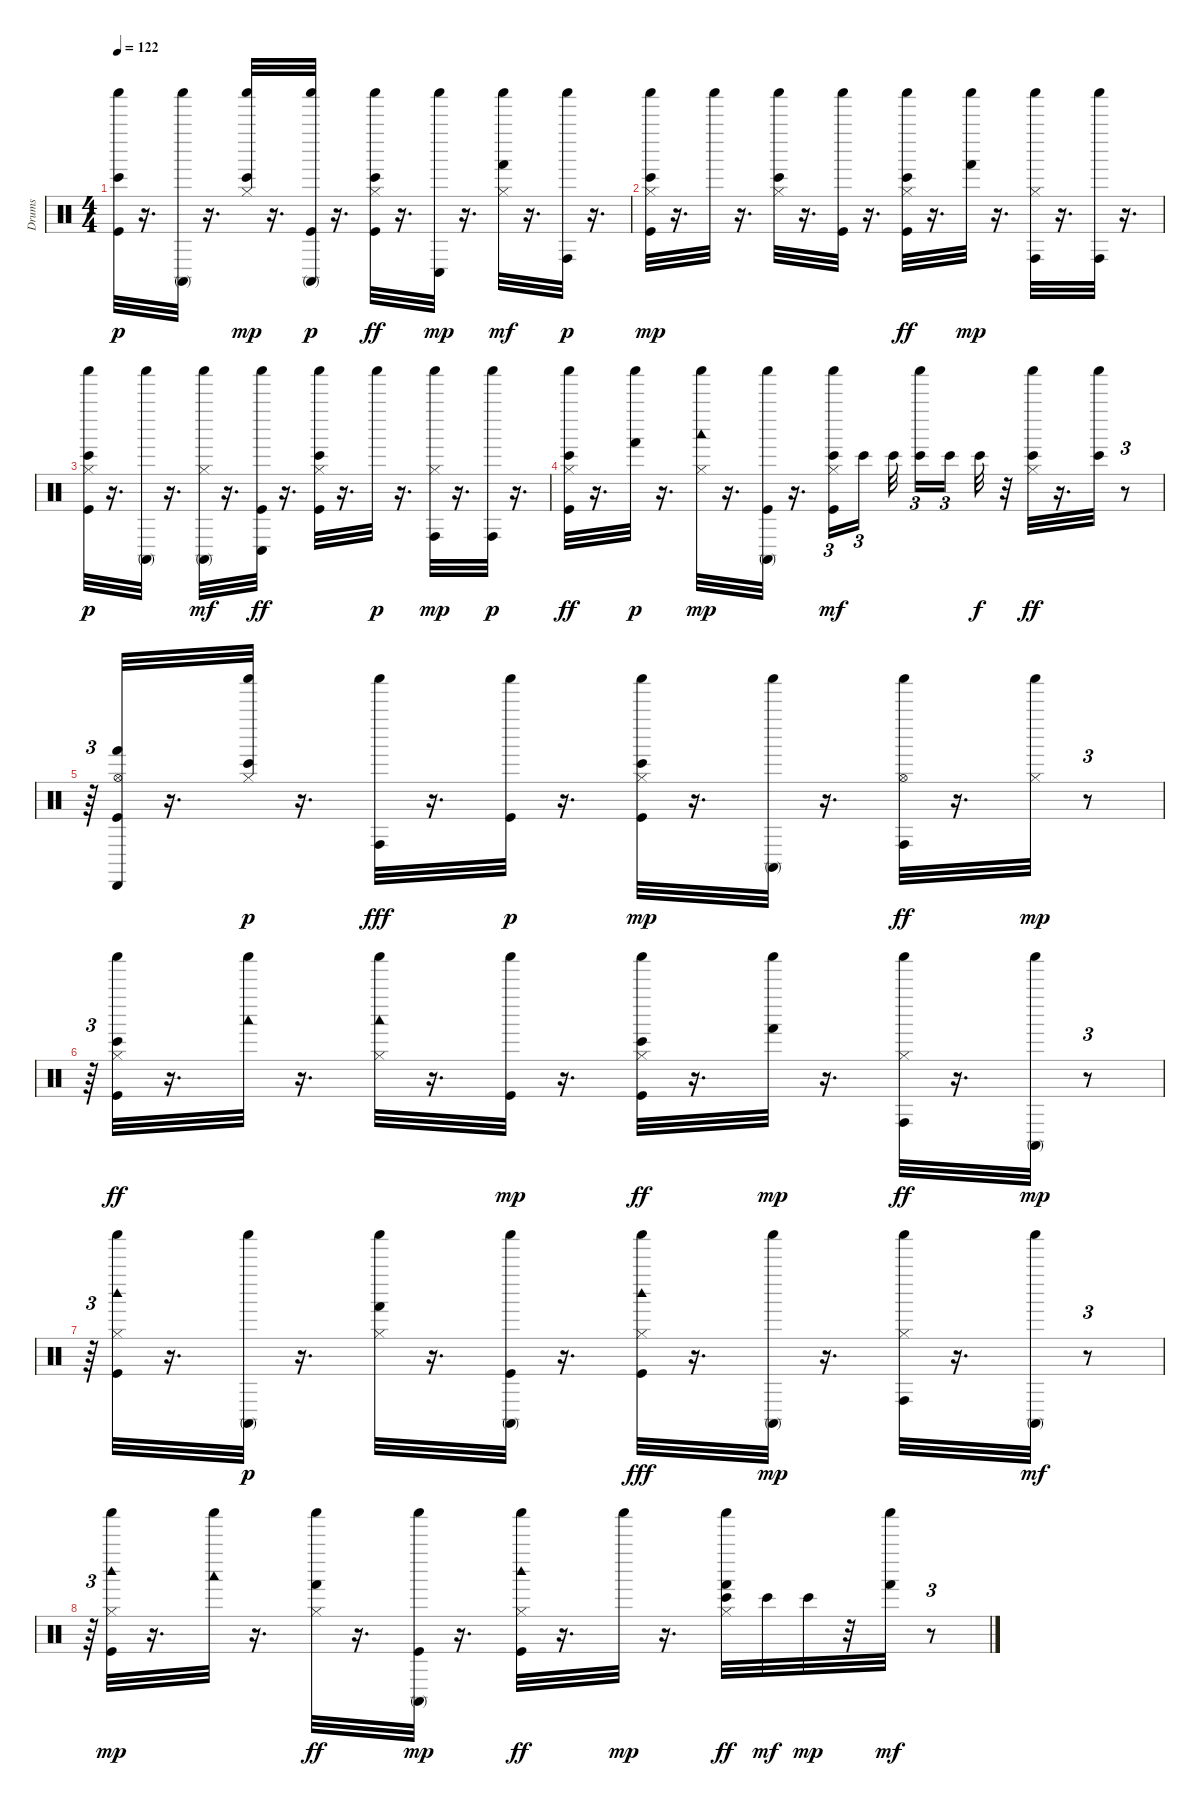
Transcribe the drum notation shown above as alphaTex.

\track ("Drums" "Drums") {instrument percussion}
\staff {score}
\articulation defaults
\ts (4 4)
\tempo 122
\clef neutral
\ks c
("Kick (hit)" "Bongo High (hit)" "Shaker (hit)").32{dy p} r.16{d} ("Conga high (mute)" "Shaker (hit)").32 r.16{d} ("Shaker (hit)" "Hi-Hat (closed)" "Bongo High (hit)").32{dy mp} r.16{d} ("Shaker (hit)" "Kick (hit)" "Conga high (mute)").32{dy p} r.16{d} ("Shaker (hit)" "Kick (hit)" "Hi-Hat (closed)" "Bongo High (hit)").32{dy ff} r.16{d} ("Shaker (hit)" "Conga low (hit)").32{dy mp} r.16{d} ("Shaker (hit)" "Hi-Hat (closed)" "Hand (hit)").32{dy mf} r.16{d} ("Shaker (hit)" "Conga high (hit)").32{dy p} r.16{d} |
("Shaker (hit)" "Kick (hit)" "Hi-Hat (closed)" "Bongo High (hit)").32{dy mp} r.16{d} "Shaker (hit)".32 r.16{d} ("Shaker (hit)" "Hi-Hat (closed)" "Bongo High (hit)").32 r.16{d} ("Shaker (hit)" "Kick (hit)").32 r.16{d} ("Shaker (hit)" "Kick (hit)" "Hi-Hat (closed)" "Bongo High (hit)").32{dy ff} r.16{d} ("Shaker (hit)" "Hand (hit)").32{dy mp} r.16{d} ("Shaker (hit)" "Hi-Hat (closed)" "Conga high (hit)").32 r.16{d} ("Shaker (hit)" "Conga high (hit)").32 r.16{d} |
("Kick (hit)" "Hi-Hat (closed)" "Bongo High (hit)" "Shaker (hit)").32{dy p} r.16{d} ("Conga high (mute)" "Shaker (hit)").32 r.16{d} ("Shaker (hit)" "Hi-Hat (closed)" "Conga high (mute)").32{dy mf} r.16{d} ("Shaker (hit)" "Kick (hit)" "Conga low (hit)").32{dy ff} r.16{d} ("Shaker (hit)" "Kick (hit)" "Hi-Hat (closed)" "Bongo High (hit)").32 r.16{d} "Shaker (hit)".32{dy p} r.16{d} ("Hi-Hat (closed)" "Shaker (hit)" "Conga high (hit)").32{dy mp} r.16{d} ("Shaker (hit)" "Conga high (hit)").32{dy p} r.16{d} |
("Shaker (hit)" "Kick (hit)" "Hi-Hat (closed)" "Bongo High (hit)").32{dy ff} r.16{d} ("Shaker (hit)" "Hand (hit)").32{dy p} r.16{d} ("Hi-Hat (closed)" "Woodblock low (hit)" "Shaker (hit)").32{dy mp} r.16{d} ("Shaker (hit)" "Kick (hit)" "Conga high (mute)").32 r.16{d} ("Shaker (hit)" "Kick (hit)" "Hi-Hat (closed)" "Bongo High (hit)").16{tu (3 2) dy mf} "Bongo High (hit)".16{tu (3 2) beam splitsecondary} "Bongo High (hit)".32{beam splitsecondary} ("Shaker (hit)" "Bongo High (hit)").16{tu (3 2)} "Bongo High (hit)".16{tu (3 2) beam splitsecondary} "Bongo High (hit)".32{dy f} r.32 ("Hi-Hat (closed)" "Shaker (hit)" "Bongo High (hit)").32{dy ff} r.16{d} ("Shaker (hit)" "Bongo High (hit)").32 r.8{tu (3 2)} |
r.64{tu (3 2)} ("Kick (hit)" "Hi-Hat (open)" "Hand (hit)" "Cabasa (hit)").32 r.16{d} ("Bongo High (hit)" "Hi-Hat (closed)" "Shaker (hit)").32{dy p} r.16{d} ("Shaker (hit)" "Conga high (hit)").32{dy fff} r.16{d} ("Shaker (hit)" "Kick (hit)").32{dy p} r.16{d} ("Shaker (hit)" "Kick (hit)" "Hi-Hat (closed)" "Bongo High (hit)").32{dy mp} r.16{d} ("Shaker (hit)" "Conga high (mute)").32 r.16{d} ("Shaker (hit)" "Hi-Hat (open)" "Conga high (hit)").32{dy ff} r.16{d} ("Shaker (hit)" "Hi-Hat (closed)").32{dy mp} r.8{tu (3 2)} |
r.64{tu (3 2)} ("Shaker (hit)" "Kick (hit)" "Hi-Hat (closed)" "Bongo High (hit)").32{dy ff} r.16{d} ("Shaker (hit)" "Woodblock low (hit)").32 r.16{d} ("Shaker (hit)" "Hi-Hat (closed)" "Woodblock low (hit)").32 r.16{d} ("Shaker (hit)" "Kick (hit)").32{dy mp} r.16{d} ("Hi-Hat (closed)" "Shaker (hit)" "Kick (hit)" "Bongo High (hit)").32{dy ff} r.16{d} ("Hand (hit)" "Shaker (hit)").32{dy mp} r.16{d} ("Hi-Hat (closed)" "Shaker (hit)" "Conga high (hit)").32{dy ff} r.16{d} ("Shaker (hit)" "Conga high (mute)").32{dy mp} r.8{tu (3 2)} |
r.64{tu (3 2)} ("Kick (hit)" "Hi-Hat (closed)" "Woodblock high (hit)" "Shaker (hit)").32 r.16{d} ("Conga high (mute)" "Shaker (hit)").32{dy p} r.16{d} ("Hi-Hat (closed)" "Shaker (hit)" "Hand (hit)").32 r.16{d} ("Shaker (hit)" "Kick (hit)" "Conga high (mute)").32 r.16{d} ("Hi-Hat (closed)" "Shaker (hit)" "Kick (hit)" "Woodblock high (hit)").32{dy fff} r.16{d} ("Shaker (hit)" "Conga high (mute)").32{dy mp} r.16{d} ("Conga high (hit)" "Shaker (hit)" "Hi-Hat (closed)").32 r.16{d} ("Shaker (hit)" "Conga high (mute)").32{dy mf} r.8{tu (3 2)} |
r.64{tu (3 2)} ("Woodblock high (hit)" "Shaker (hit)" "Kick (hit)" "Hi-Hat (closed)").32{dy mp} r.16{d} ("Shaker (hit)" "Woodblock low (hit)").32 r.16{d} ("Shaker (hit)" "Hi-Hat (closed)" "Hand (hit)").32{dy ff} r.16{d} ("Shaker (hit)" "Kick (hit)" "Conga high (mute)").32{dy mp} r.16{d} ("Hi-Hat (closed)" "Shaker (hit)" "Kick (hit)" "Woodblock high (hit)").32{dy ff} r.16{d} "Shaker (hit)".32{dy mp} r.16{d} ("Shaker (hit)" "Hi-Hat (closed)" "Bongo High (hit)" "Hand (hit)").32{dy ff} "Bongo High (hit)".32{dy mf} "Bongo High (hit)".32{dy mp} r.32 ("Shaker (hit)" "Hand (hit)").32{dy mf} r.8{tu (3 2)}
